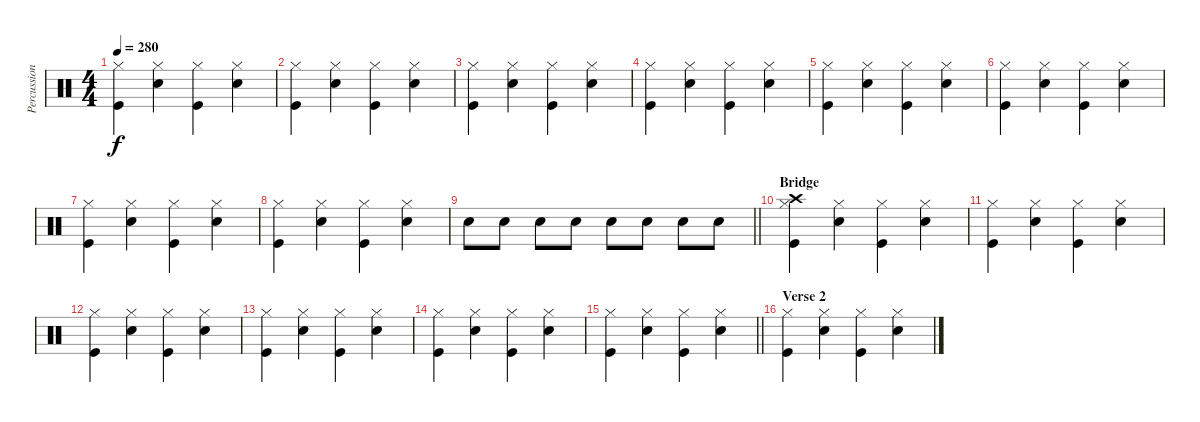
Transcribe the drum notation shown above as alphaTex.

\track ("Percussion" "Percussion") {instrument percussion}
\staff {score}
\articulation defaults
\ts (4 4)
\tempo 280
\clef neutral
\ks c
("Hi-Hat (closed)" "Kick (hit)").4{dy f} ("Hi-Hat (closed)" "Snare (hit) 2").4 ("Hi-Hat (closed)" "Kick (hit)").4 ("Hi-Hat (closed)" "Snare (hit) 2").4 |
("Hi-Hat (closed)" "Kick (hit)").4 ("Hi-Hat (closed)" "Snare (hit) 2").4 ("Hi-Hat (closed)" "Kick (hit)").4 ("Hi-Hat (closed)" "Snare (hit) 2").4 |
("Hi-Hat (closed)" "Kick (hit)").4 ("Hi-Hat (closed)" "Snare (hit) 2").4 ("Hi-Hat (closed)" "Kick (hit)").4 ("Hi-Hat (closed)" "Snare (hit) 2").4 |
("Hi-Hat (closed)" "Kick (hit)").4 ("Hi-Hat (closed)" "Snare (hit) 2").4 ("Hi-Hat (closed)" "Kick (hit)").4 ("Hi-Hat (closed)" "Snare (hit) 2").4 |
("Hi-Hat (closed)" "Kick (hit)").4 ("Hi-Hat (closed)" "Snare (hit) 2").4 ("Hi-Hat (closed)" "Kick (hit)").4 ("Hi-Hat (closed)" "Snare (hit) 2").4 |
("Hi-Hat (closed)" "Kick (hit)").4 ("Hi-Hat (closed)" "Snare (hit) 2").4 ("Hi-Hat (closed)" "Kick (hit)").4 ("Hi-Hat (closed)" "Snare (hit) 2").4 |
("Hi-Hat (closed)" "Kick (hit)").4 ("Hi-Hat (closed)" "Snare (hit) 2").4 ("Hi-Hat (closed)" "Kick (hit)").4 ("Hi-Hat (closed)" "Snare (hit) 2").4 |
("Hi-Hat (closed)" "Kick (hit)").4 ("Hi-Hat (closed)" "Snare (hit) 2").4 ("Hi-Hat (closed)" "Kick (hit)").4 ("Hi-Hat (closed)" "Snare (hit) 2").4 |
\barLineRight lightlight "Snare (hit) 2".8 "Snare (hit) 2".8 "Snare (hit) 2".8 "Snare (hit) 2".8 "Snare (hit) 2".8 "Snare (hit) 2".8 "Snare (hit) 2".8 "Snare (hit) 2".8
|
\section ("" "Bridge")
("Crash high (hit)" "Hi-Hat (closed)" "Kick (hit)").4 ("Hi-Hat (closed)" "Snare (hit) 2").4 ("Hi-Hat (closed)" "Kick (hit)").4 ("Hi-Hat (closed)" "Snare (hit) 2").4 |
("Hi-Hat (closed)" "Kick (hit)").4 ("Hi-Hat (closed)" "Snare (hit) 2").4 ("Hi-Hat (closed)" "Kick (hit)").4 ("Hi-Hat (closed)" "Snare (hit) 2").4 |
("Hi-Hat (closed)" "Kick (hit)").4 ("Hi-Hat (closed)" "Snare (hit) 2").4 ("Hi-Hat (closed)" "Kick (hit)").4 ("Hi-Hat (closed)" "Snare (hit) 2").4 |
("Hi-Hat (closed)" "Kick (hit)").4 ("Hi-Hat (closed)" "Snare (hit) 2").4 ("Hi-Hat (closed)" "Kick (hit)").4 ("Hi-Hat (closed)" "Snare (hit) 2").4 |
("Hi-Hat (closed)" "Kick (hit)").4 ("Hi-Hat (closed)" "Snare (hit) 2").4 ("Hi-Hat (closed)" "Kick (hit)").4 ("Hi-Hat (closed)" "Snare (hit) 2").4 |
\barLineRight lightlight
("Hi-Hat (closed)" "Kick (hit)").4 ("Hi-Hat (closed)" "Snare (hit) 2").4 ("Hi-Hat (closed)" "Kick (hit)").4 ("Hi-Hat (closed)" "Snare (hit) 2").4 |
\section ("" "Verse 2")
("Hi-Hat (closed)" "Kick (hit)").4 ("Hi-Hat (closed)" "Snare (hit) 2").4 ("Hi-Hat (closed)" "Kick (hit)").4 ("Hi-Hat (closed)" "Snare (hit) 2").4
